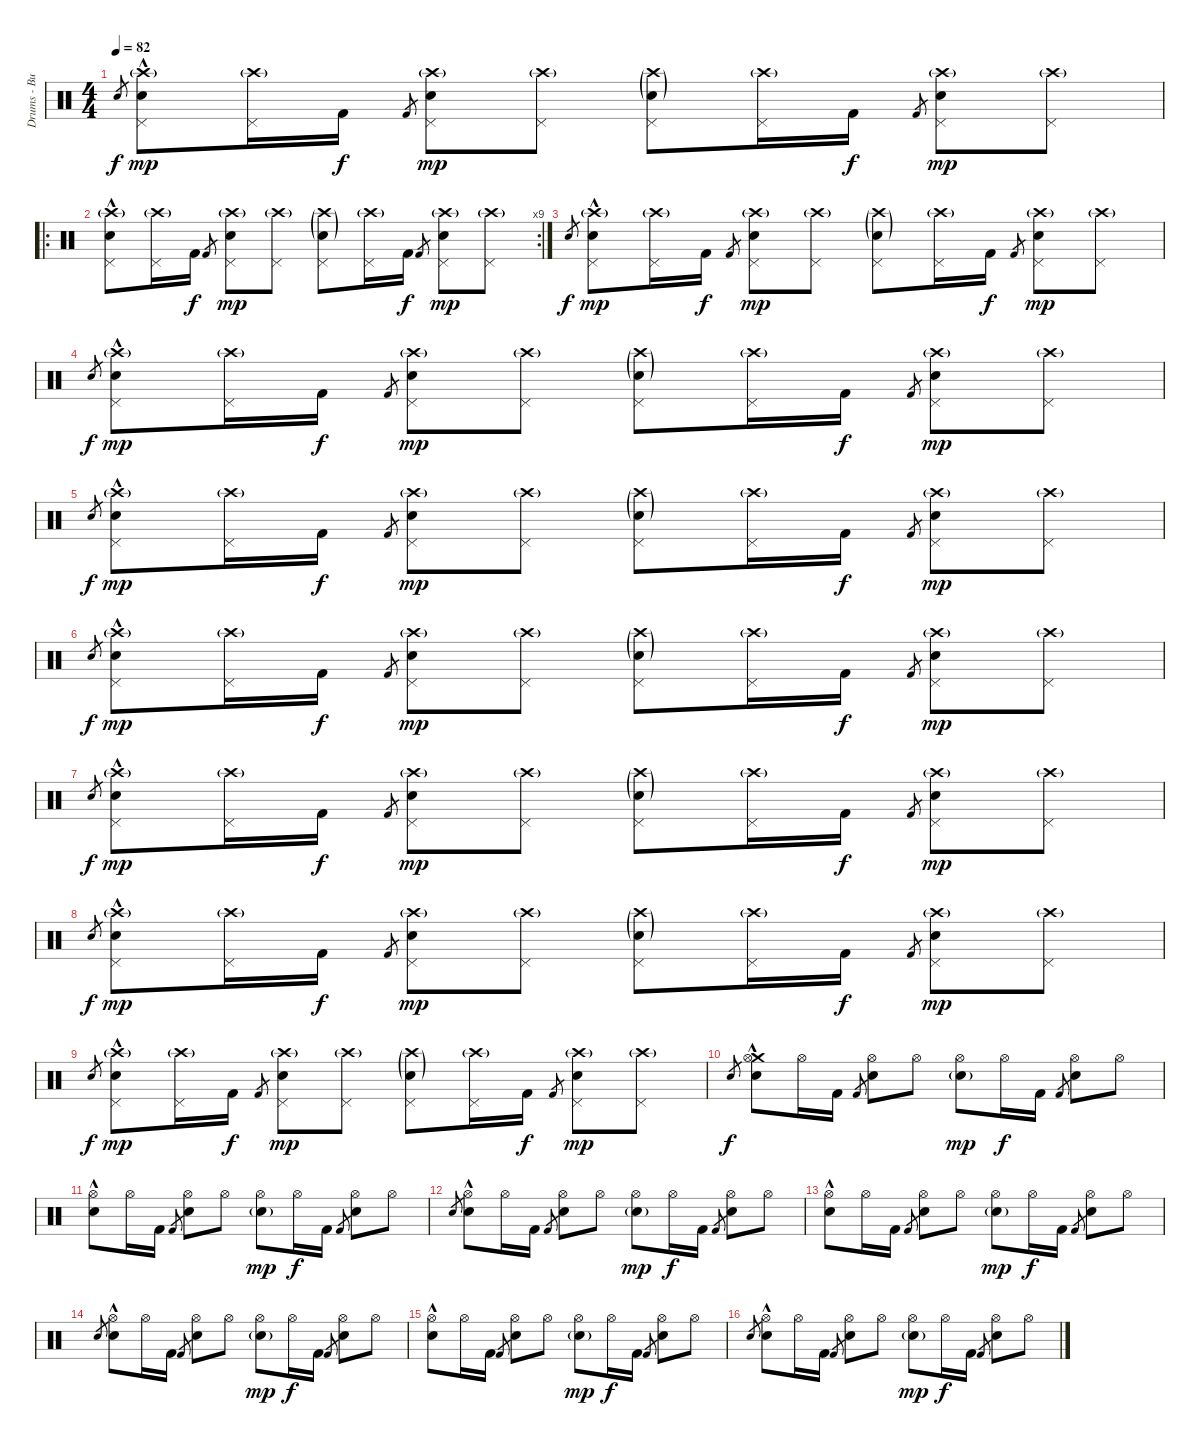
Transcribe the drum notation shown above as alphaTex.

\track ("Drums - Buddy" "Drums - Bu") {instrument percussion}
\staff {score}
\articulation defaults
\ts (4 4)
\tempo 82
\clef neutral
\ks c "Electric Snare (hit)".8{gr dy f}
("Crash high (hit)"{g} "Electric Snare (hit)" "Pedal Hi-Hat (hit)"{hac}).8{dy mp} ("Crash high (hit)"{g} "Pedal Hi-Hat (hit)").16 "Kick (hit) 2".16{dy f} "Kick (hit) 2".8{gr} ("Crash high (hit)"{g} "Electric Snare (hit)" "Pedal Hi-Hat (hit)").8{dy mp} ("Crash high (hit)"{g} "Pedal Hi-Hat (hit)").8 ("Crash high (hit)"{g} "Electric Snare (hit)"{g} "Pedal Hi-Hat (hit)").8 ("Crash high (hit)"{g} "Pedal Hi-Hat (hit)").16 "Kick (hit) 2".16{dy f} "Kick (hit) 2".8{gr} ("Crash high (hit)"{g} "Electric Snare (hit)" "Pedal Hi-Hat (hit)").8{dy mp} ("Crash high (hit)"{g} "Pedal Hi-Hat (hit)").8 |
\ro
\rc 9
("Crash high (hit)"{g} "Electric Snare (hit)" "Pedal Hi-Hat (hit)"{hac}).8{volume 14} ("Crash high (hit)"{g} "Pedal Hi-Hat (hit)").16 "Kick (hit) 2".16{dy f} "Kick (hit) 2".8{gr} ("Crash high (hit)"{g} "Electric Snare (hit)" "Pedal Hi-Hat (hit)").8{dy mp} ("Crash high (hit)"{g} "Pedal Hi-Hat (hit)").8 ("Crash high (hit)"{g} "Electric Snare (hit)"{g} "Pedal Hi-Hat (hit)").8 ("Crash high (hit)"{g} "Pedal Hi-Hat (hit)").16 "Kick (hit) 2".16{dy f} "Kick (hit) 2".8{gr} ("Crash high (hit)"{g} "Electric Snare (hit)" "Pedal Hi-Hat (hit)").8{dy mp} ("Crash high (hit)"{g} "Pedal Hi-Hat (hit)").8 |
"Electric Snare (hit)".8{gr dy f} ("Crash high (hit)"{g} "Electric Snare (hit)" "Pedal Hi-Hat (hit)"{hac}).8{dy mp} ("Crash high (hit)"{g} "Pedal Hi-Hat (hit)").16 "Kick (hit) 2".16{dy f} "Kick (hit) 2".8{gr} ("Crash high (hit)"{g} "Electric Snare (hit)" "Pedal Hi-Hat (hit)").8{dy mp} ("Crash high (hit)"{g} "Pedal Hi-Hat (hit)").8 ("Crash high (hit)"{g} "Electric Snare (hit)"{g} "Pedal Hi-Hat (hit)").8 ("Crash high (hit)"{g} "Pedal Hi-Hat (hit)").16 "Kick (hit) 2".16{dy f} "Kick (hit) 2".8{gr} ("Crash high (hit)"{g} "Electric Snare (hit)" "Pedal Hi-Hat (hit)").8{dy mp} ("Crash high (hit)"{g} "Pedal Hi-Hat (hit)").8 |
"Electric Snare (hit)".8{gr dy f} ("Crash high (hit)"{g} "Electric Snare (hit)" "Pedal Hi-Hat (hit)"{hac}).8{dy mp} ("Crash high (hit)"{g} "Pedal Hi-Hat (hit)").16 "Kick (hit) 2".16{dy f} "Kick (hit) 2".8{gr} ("Crash high (hit)"{g} "Electric Snare (hit)" "Pedal Hi-Hat (hit)").8{dy mp} ("Crash high (hit)"{g} "Pedal Hi-Hat (hit)").8 ("Crash high (hit)"{g} "Electric Snare (hit)"{g} "Pedal Hi-Hat (hit)").8 ("Crash high (hit)"{g} "Pedal Hi-Hat (hit)").16 "Kick (hit) 2".16{dy f} "Kick (hit) 2".8{gr} ("Crash high (hit)"{g} "Electric Snare (hit)" "Pedal Hi-Hat (hit)").8{dy mp} ("Crash high (hit)"{g} "Pedal Hi-Hat (hit)").8 |
"Electric Snare (hit)".8{gr dy f} ("Crash high (hit)"{g} "Electric Snare (hit)" "Pedal Hi-Hat (hit)"{hac}).8{dy mp} ("Crash high (hit)"{g} "Pedal Hi-Hat (hit)").16 "Kick (hit) 2".16{dy f} "Kick (hit) 2".8{gr} ("Crash high (hit)"{g} "Electric Snare (hit)" "Pedal Hi-Hat (hit)").8{dy mp} ("Crash high (hit)"{g} "Pedal Hi-Hat (hit)").8 ("Crash high (hit)"{g} "Electric Snare (hit)"{g} "Pedal Hi-Hat (hit)").8 ("Crash high (hit)"{g} "Pedal Hi-Hat (hit)").16 "Kick (hit) 2".16{dy f} "Kick (hit) 2".8{gr} ("Crash high (hit)"{g} "Electric Snare (hit)" "Pedal Hi-Hat (hit)").8{dy mp} ("Crash high (hit)"{g} "Pedal Hi-Hat (hit)").8 |
"Electric Snare (hit)".8{gr dy f} ("Crash high (hit)"{g} "Electric Snare (hit)" "Pedal Hi-Hat (hit)"{hac}).8{dy mp} ("Crash high (hit)"{g} "Pedal Hi-Hat (hit)").16 "Kick (hit) 2".16{dy f} "Kick (hit) 2".8{gr} ("Crash high (hit)"{g} "Electric Snare (hit)" "Pedal Hi-Hat (hit)").8{dy mp} ("Crash high (hit)"{g} "Pedal Hi-Hat (hit)").8 ("Crash high (hit)"{g} "Electric Snare (hit)"{g} "Pedal Hi-Hat (hit)").8 ("Crash high (hit)"{g} "Pedal Hi-Hat (hit)").16 "Kick (hit) 2".16{dy f} "Kick (hit) 2".8{gr} ("Crash high (hit)"{g} "Electric Snare (hit)" "Pedal Hi-Hat (hit)").8{dy mp} ("Crash high (hit)"{g} "Pedal Hi-Hat (hit)").8 |
"Electric Snare (hit)".8{gr dy f} ("Crash high (hit)"{g} "Electric Snare (hit)" "Pedal Hi-Hat (hit)"{hac}).8{dy mp} ("Crash high (hit)"{g} "Pedal Hi-Hat (hit)").16 "Kick (hit) 2".16{dy f} "Kick (hit) 2".8{gr} ("Crash high (hit)"{g} "Electric Snare (hit)" "Pedal Hi-Hat (hit)").8{dy mp} ("Crash high (hit)"{g} "Pedal Hi-Hat (hit)").8 ("Crash high (hit)"{g} "Electric Snare (hit)"{g} "Pedal Hi-Hat (hit)").8 ("Crash high (hit)"{g} "Pedal Hi-Hat (hit)").16 "Kick (hit) 2".16{dy f} "Kick (hit) 2".8{gr} ("Crash high (hit)"{g} "Electric Snare (hit)" "Pedal Hi-Hat (hit)").8{dy mp} ("Crash high (hit)"{g} "Pedal Hi-Hat (hit)").8 |
"Electric Snare (hit)".8{gr dy f} ("Crash high (hit)"{g} "Electric Snare (hit)" "Pedal Hi-Hat (hit)"{hac}).8{dy mp} ("Crash high (hit)"{g} "Pedal Hi-Hat (hit)").16 "Kick (hit) 2".16{dy f} "Kick (hit) 2".8{gr} ("Crash high (hit)"{g} "Electric Snare (hit)" "Pedal Hi-Hat (hit)").8{dy mp} ("Crash high (hit)"{g} "Pedal Hi-Hat (hit)").8 ("Crash high (hit)"{g} "Electric Snare (hit)"{g} "Pedal Hi-Hat (hit)").8 ("Crash high (hit)"{g} "Pedal Hi-Hat (hit)").16 "Kick (hit) 2".16{dy f} "Kick (hit) 2".8{gr} ("Crash high (hit)"{g} "Electric Snare (hit)" "Pedal Hi-Hat (hit)").8{dy mp} ("Crash high (hit)"{g} "Pedal Hi-Hat (hit)").8 |
"Electric Snare (hit)".8{gr dy f} ("Crash high (hit)"{g} "Electric Snare (hit)" "Pedal Hi-Hat (hit)"{hac}).8{dy mp} ("Crash high (hit)"{g} "Pedal Hi-Hat (hit)").16 "Kick (hit) 2".16{dy f} "Kick (hit) 2".8{gr} ("Crash high (hit)"{g} "Electric Snare (hit)" "Pedal Hi-Hat (hit)").8{dy mp} ("Crash high (hit)"{g} "Pedal Hi-Hat (hit)").8 ("Crash high (hit)"{g} "Electric Snare (hit)"{g} "Pedal Hi-Hat (hit)").8 ("Crash high (hit)"{g} "Pedal Hi-Hat (hit)").16 "Kick (hit) 2".16{dy f} "Kick (hit) 2".8{gr} ("Crash high (hit)"{g} "Electric Snare (hit)" "Pedal Hi-Hat (hit)").8{dy mp} ("Crash high (hit)"{g} "Pedal Hi-Hat (hit)").8 |
"Electric Snare (hit)".8{gr dy f} ("Crash medium (hit)" "Electric Snare (hit)" "Hi-Hat (open)"{hac}).8 "Hi-Hat (open)".16 "Kick (hit) 2".16 "Kick (hit) 2".8{gr} ("Electric Snare (hit)" "Hi-Hat (open)").8 "Hi-Hat (open)".8 ("Electric Snare (hit)"{g} "Hi-Hat (open)").8{dy mp} "Hi-Hat (open)".16{dy f} "Kick (hit) 2".16 "Kick (hit) 2".8{gr} ("Electric Snare (hit)" "Hi-Hat (open)").8 "Hi-Hat (open)".8 |
("Electric Snare (hit)" "Hi-Hat (open)"{hac}).8 "Hi-Hat (open)".16 "Kick (hit) 2".16 "Kick (hit) 2".8{gr} ("Electric Snare (hit)" "Hi-Hat (open)").8 "Hi-Hat (open)".8 ("Electric Snare (hit)"{g} "Hi-Hat (open)").8{dy mp} "Hi-Hat (open)".16{dy f} "Kick (hit) 2".16 "Kick (hit) 2".8{gr} ("Electric Snare (hit)" "Hi-Hat (open)").8 "Hi-Hat (open)".8 |
"Electric Snare (hit)".8{gr} ("Electric Snare (hit)" "Hi-Hat (open)"{hac}).8 "Hi-Hat (open)".16 "Kick (hit) 2".16 "Kick (hit) 2".8{gr} ("Electric Snare (hit)" "Hi-Hat (open)").8 "Hi-Hat (open)".8 ("Electric Snare (hit)"{g} "Hi-Hat (open)").8{dy mp} "Hi-Hat (open)".16{dy f} "Kick (hit) 2".16 "Kick (hit) 2".8{gr} ("Electric Snare (hit)" "Hi-Hat (open)").8 "Hi-Hat (open)".8 |
("Electric Snare (hit)" "Hi-Hat (open)"{hac}).8 "Hi-Hat (open)".16 "Kick (hit) 2".16 "Kick (hit) 2".8{gr} ("Electric Snare (hit)" "Hi-Hat (open)").8 "Hi-Hat (open)".8 ("Electric Snare (hit)"{g} "Hi-Hat (open)").8{dy mp} "Hi-Hat (open)".16{dy f} "Kick (hit) 2".16 "Kick (hit) 2".8{gr} ("Electric Snare (hit)" "Hi-Hat (open)").8 "Hi-Hat (open)".8 |
"Electric Snare (hit)".8{gr} ("Electric Snare (hit)" "Hi-Hat (open)"{hac}).8 "Hi-Hat (open)".16 "Kick (hit) 2".16 "Kick (hit) 2".8{gr} ("Electric Snare (hit)" "Hi-Hat (open)").8 "Hi-Hat (open)".8 ("Electric Snare (hit)"{g} "Hi-Hat (open)").8{dy mp} "Hi-Hat (open)".16{dy f} "Kick (hit) 2".16 "Kick (hit) 2".8{gr} ("Electric Snare (hit)" "Hi-Hat (open)").8 "Hi-Hat (open)".8 |
("Electric Snare (hit)" "Hi-Hat (open)"{hac}).8 "Hi-Hat (open)".16 "Kick (hit) 2".16 "Kick (hit) 2".8{gr} ("Electric Snare (hit)" "Hi-Hat (open)").8 "Hi-Hat (open)".8 ("Electric Snare (hit)"{g} "Hi-Hat (open)").8{dy mp} "Hi-Hat (open)".16{dy f} "Kick (hit) 2".16 "Kick (hit) 2".8{gr} ("Electric Snare (hit)" "Hi-Hat (open)").8 "Hi-Hat (open)".8 |
"Electric Snare (hit)".8{gr} ("Electric Snare (hit)" "Hi-Hat (open)"{hac}).8 "Hi-Hat (open)".16 "Kick (hit) 2".16 "Kick (hit) 2".8{gr} ("Electric Snare (hit)" "Hi-Hat (open)").8 "Hi-Hat (open)".8 ("Electric Snare (hit)"{g} "Hi-Hat (open)").8{dy mp} "Hi-Hat (open)".16{dy f} "Kick (hit) 2".16 "Kick (hit) 2".8{gr} ("Electric Snare (hit)" "Hi-Hat (open)").8 "Hi-Hat (open)".8
